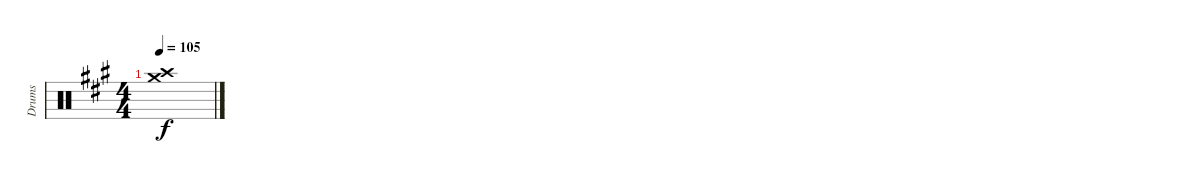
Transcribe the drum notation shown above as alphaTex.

\track ("Drums" "Drums") {instrument percussion}
\staff {score}
\articulation defaults
\ts (4 4)
\section ("" "")
\tempo 105
\clef neutral
\ks f#minor
("Crash high (hit)" "Crash medium (hit)").1{dy f}
